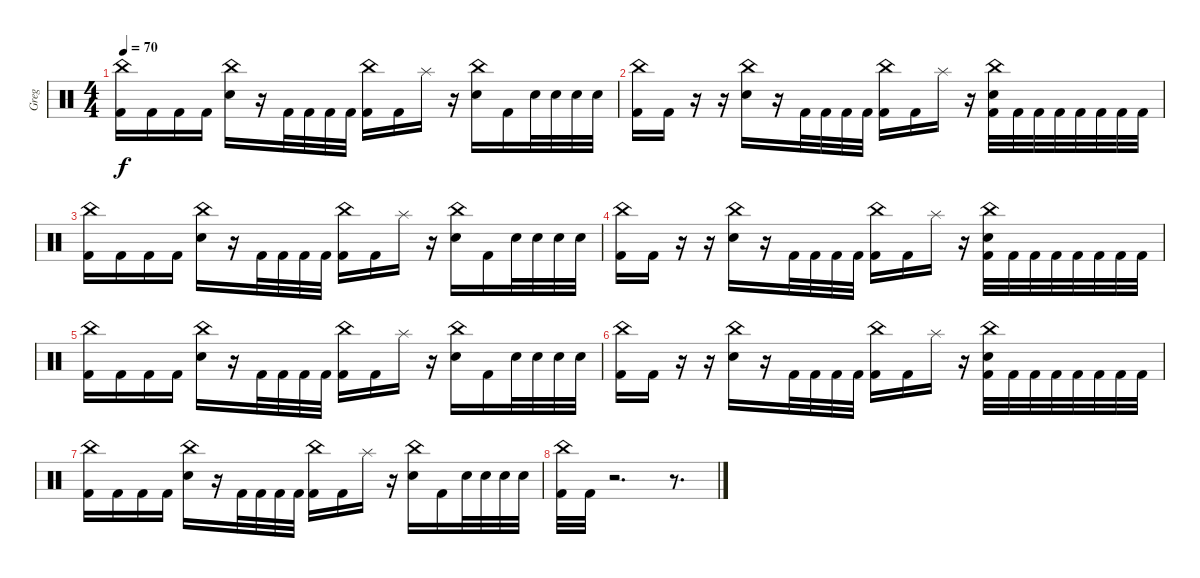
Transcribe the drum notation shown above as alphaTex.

\track ("Greg" "Greg") {instrument percussion}
\staff {score}
\articulation defaults
\ts (4 4)
\tempo 70
\clef neutral
\ks c
("China (hit)" "Kick (hit) 2").16{dy f} "Kick (hit) 2".16 "Kick (hit) 2".16 "Kick (hit) 2".16 ("China (hit)" "Snare (hit) 2").16 r.16 "Kick (hit) 2".32 "Kick (hit) 2".32 "Kick (hit) 2".32 "Kick (hit) 2".32 ("China (hit)" "Kick (hit) 2").16 "Kick (hit) 2".16 "Splash (hit)".16 r.16 ("China (hit)" "Snare (hit) 2").16 "Kick (hit) 2".16 "Snare (hit) 2".32 "Snare (hit) 2".32 "Snare (hit) 2".32 "Snare (hit) 2".32 |
("China (hit)" "Kick (hit) 2").16 "Kick (hit) 2".16 r.16 r.16 ("China (hit)" "Snare (hit) 2").16 r.16 "Kick (hit) 2".32 "Kick (hit) 2".32 "Kick (hit) 2".32 "Kick (hit) 2".32 ("China (hit)" "Kick (hit) 2").16 "Kick (hit) 2".16 "Splash (hit)".16 r.16 ("China (hit)" "Snare (hit) 2" "Kick (hit) 2").32 "Kick (hit) 2".32 "Kick (hit) 2".32 "Kick (hit) 2".32 "Kick (hit) 2".32 "Kick (hit) 2".32 "Kick (hit) 2".32 "Kick (hit) 2".32 |
("China (hit)" "Kick (hit) 2").16 "Kick (hit) 2".16 "Kick (hit) 2".16 "Kick (hit) 2".16 ("China (hit)" "Snare (hit) 2").16 r.16 "Kick (hit) 2".32 "Kick (hit) 2".32 "Kick (hit) 2".32 "Kick (hit) 2".32 ("China (hit)" "Kick (hit) 2").16 "Kick (hit) 2".16 "Splash (hit)".16 r.16 ("China (hit)" "Snare (hit) 2").16 "Kick (hit) 2".16 "Snare (hit) 2".32 "Snare (hit) 2".32 "Snare (hit) 2".32 "Snare (hit) 2".32 |
("China (hit)" "Kick (hit) 2").16 "Kick (hit) 2".16 r.16 r.16 ("China (hit)" "Snare (hit) 2").16 r.16 "Kick (hit) 2".32 "Kick (hit) 2".32 "Kick (hit) 2".32 "Kick (hit) 2".32 ("China (hit)" "Kick (hit) 2").16 "Kick (hit) 2".16 "Splash (hit)".16 r.16 ("China (hit)" "Snare (hit) 2" "Kick (hit) 2").32 "Kick (hit) 2".32 "Kick (hit) 2".32 "Kick (hit) 2".32 "Kick (hit) 2".32 "Kick (hit) 2".32 "Kick (hit) 2".32 "Kick (hit) 2".32 |
("China (hit)" "Kick (hit) 2").16 "Kick (hit) 2".16 "Kick (hit) 2".16 "Kick (hit) 2".16 ("China (hit)" "Snare (hit) 2").16 r.16 "Kick (hit) 2".32 "Kick (hit) 2".32 "Kick (hit) 2".32 "Kick (hit) 2".32 ("China (hit)" "Kick (hit) 2").16 "Kick (hit) 2".16 "Splash (hit)".16 r.16 ("China (hit)" "Snare (hit) 2").16 "Kick (hit) 2".16 "Snare (hit) 2".32 "Snare (hit) 2".32 "Snare (hit) 2".32 "Snare (hit) 2".32 |
("China (hit)" "Kick (hit) 2").16 "Kick (hit) 2".16 r.16 r.16 ("China (hit)" "Snare (hit) 2").16 r.16 "Kick (hit) 2".32 "Kick (hit) 2".32 "Kick (hit) 2".32 "Kick (hit) 2".32 ("China (hit)" "Kick (hit) 2").16 "Kick (hit) 2".16 "Splash (hit)".16 r.16 ("China (hit)" "Snare (hit) 2" "Kick (hit) 2").32 "Kick (hit) 2".32 "Kick (hit) 2".32 "Kick (hit) 2".32 "Kick (hit) 2".32 "Kick (hit) 2".32 "Kick (hit) 2".32 "Kick (hit) 2".32 |
("China (hit)" "Kick (hit) 2").16 "Kick (hit) 2".16 "Kick (hit) 2".16 "Kick (hit) 2".16 ("China (hit)" "Snare (hit) 2").16 r.16 "Kick (hit) 2".32 "Kick (hit) 2".32 "Kick (hit) 2".32 "Kick (hit) 2".32 ("China (hit)" "Kick (hit) 2").16 "Kick (hit) 2".16 "Splash (hit)".16 r.16 ("China (hit)" "Snare (hit) 2").16 "Kick (hit) 2".16 "Snare (hit) 2".32 "Snare (hit) 2".32 "Snare (hit) 2".32 "Snare (hit) 2".32 |
("China (hit)" "Kick (hit) 2").32 "Kick (hit) 2".32 r.2{d} r.8{d}
